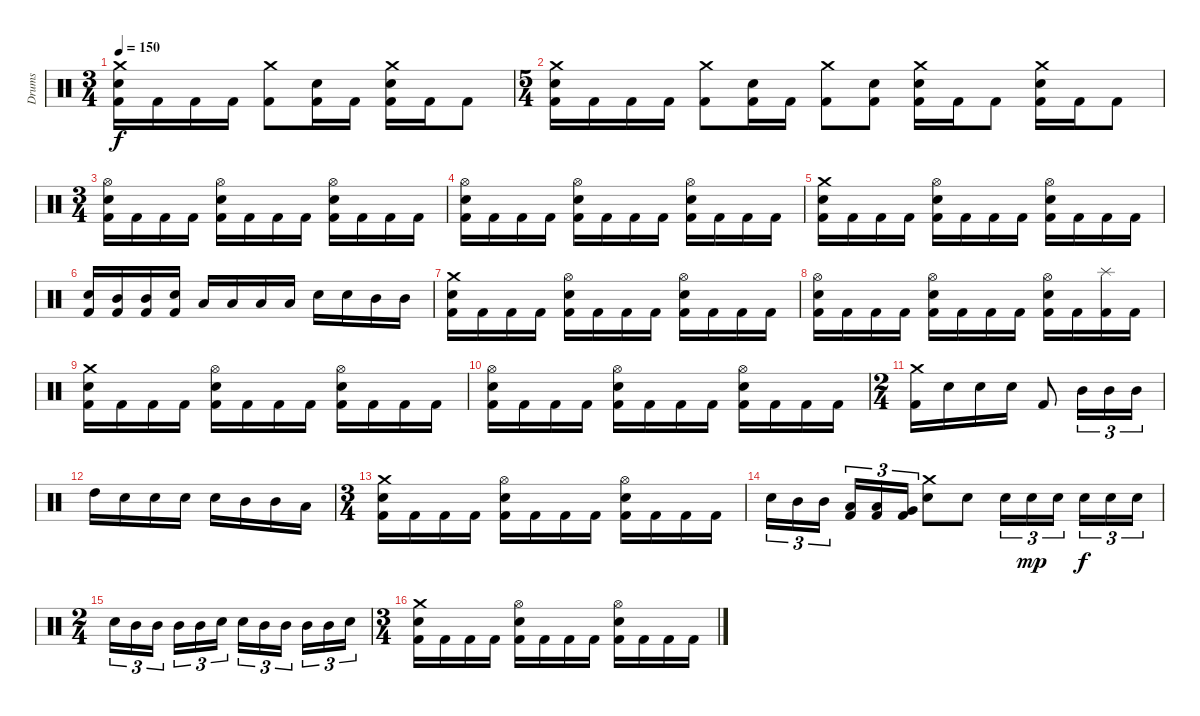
\track ("Drums" "Drums") {instrument percussion}
\staff {score}
\articulation defaults
\ts (3 4)
\tempo 150
\clef neutral
\ks c
("Crash medium (hit)" "Electric Snare (hit)" "Kick (hit) 2").16{dy f} "Kick (hit) 2".16 "Kick (hit) 2".16 "Kick (hit) 2".16 ("Crash medium (hit)" "Kick (hit) 2").8 ("Electric Snare (hit)" "Kick (hit) 2").16 "Kick (hit) 2".16 ("Crash medium (hit)" "Electric Snare (hit)" "Kick (hit) 2").16 "Kick (hit) 2".16 "Kick (hit) 2".8 |
\ts (5 4)
("Crash medium (hit)" "Electric Snare (hit)" "Kick (hit) 2").16 "Kick (hit) 2".16 "Kick (hit) 2".16 "Kick (hit) 2".16 ("Crash medium (hit)" "Kick (hit) 2").8 ("Electric Snare (hit)" "Kick (hit) 2").16 "Kick (hit) 2".16 ("Crash medium (hit)" "Kick (hit) 2").8 ("Electric Snare (hit)" "Kick (hit) 2").8 ("Crash medium (hit)" "Electric Snare (hit)" "Kick (hit) 2").16 "Kick (hit) 2".16 "Kick (hit) 2".8 ("Crash medium (hit)" "Electric Snare (hit)" "Kick (hit) 2").16 "Kick (hit) 2".16 "Kick (hit) 2".8 |
\ts (3 4)
("Hi-Hat (open)" "Electric Snare (hit)" "Kick (hit) 2").16 "Kick (hit) 2".16 "Kick (hit) 2".16 "Kick (hit) 2".16 ("Hi-Hat (open)" "Electric Snare (hit)" "Kick (hit) 2").16 "Kick (hit) 2".16 "Kick (hit) 2".16 "Kick (hit) 2".16 ("Hi-Hat (open)" "Electric Snare (hit)" "Kick (hit) 2").16 "Kick (hit) 2".16 "Kick (hit) 2".16 "Kick (hit) 2".16 |
("Hi-Hat (open)" "Electric Snare (hit)" "Kick (hit) 2").16 "Kick (hit) 2".16 "Kick (hit) 2".16 "Kick (hit) 2".16 ("Hi-Hat (open)" "Electric Snare (hit)" "Kick (hit) 2").16 "Kick (hit) 2".16 "Kick (hit) 2".16 "Kick (hit) 2".16 ("Hi-Hat (open)" "Electric Snare (hit)" "Kick (hit) 2").16 "Kick (hit) 2".16 "Kick (hit) 2".16 "Kick (hit) 2".16 |
("Crash medium (hit)" "Electric Snare (hit)" "Kick (hit) 2").16 "Kick (hit) 2".16 "Kick (hit) 2".16 "Kick (hit) 2".16 ("Hi-Hat (open)" "Electric Snare (hit)" "Kick (hit) 2").16 "Kick (hit) 2".16 "Kick (hit) 2".16 "Kick (hit) 2".16 ("Hi-Hat (open)" "Electric Snare (hit)" "Kick (hit) 2").16 "Kick (hit) 2".16 "Kick (hit) 2".16 "Kick (hit) 2".16 |
("Electric Snare (hit)" "Kick (hit) 2").16 ("Mid Tom (hit)" "Kick (hit) 2").16 ("Mid Tom (hit)" "Kick (hit) 2").16 ("Electric Snare (hit)" "Kick (hit) 2").16 "Low Tom (hit)".16 "Low Tom (hit)".16 "Low Tom (hit)".16 "Low Tom (hit)".16 "Electric Snare (hit)".16 "Electric Snare (hit)".16 "Mid Tom (hit)".16 "Mid Tom (hit)".16 |
("Crash medium (hit)" "Electric Snare (hit)" "Kick (hit) 2").16 "Kick (hit) 2".16 "Kick (hit) 2".16 "Kick (hit) 2".16 ("Hi-Hat (open)" "Electric Snare (hit)" "Kick (hit) 2").16 "Kick (hit) 2".16 "Kick (hit) 2".16 "Kick (hit) 2".16 ("Hi-Hat (open)" "Electric Snare (hit)" "Kick (hit) 2").16 "Kick (hit) 2".16 "Kick (hit) 2".16 "Kick (hit) 2".16 |
("Hi-Hat (open)" "Electric Snare (hit)" "Kick (hit) 2").16 "Kick (hit) 2".16 "Kick (hit) 2".16 "Kick (hit) 2".16 ("Hi-Hat (open)" "Electric Snare (hit)" "Kick (hit) 2").16 "Kick (hit) 2".16 "Kick (hit) 2".16 "Kick (hit) 2".16 ("Hi-Hat (open)" "Electric Snare (hit)" "Kick (hit) 2").16 "Kick (hit) 2".16 ("Splash (hit)" "Kick (hit) 2").16 "Kick (hit) 2".16 |
("Crash medium (hit)" "Electric Snare (hit)" "Kick (hit) 2").16 "Kick (hit) 2".16 "Kick (hit) 2".16 "Kick (hit) 2".16 ("Hi-Hat (open)" "Electric Snare (hit)" "Kick (hit) 2").16 "Kick (hit) 2".16 "Kick (hit) 2".16 "Kick (hit) 2".16 ("Hi-Hat (open)" "Electric Snare (hit)" "Kick (hit) 2").16 "Kick (hit) 2".16 "Kick (hit) 2".16 "Kick (hit) 2".16 |
("Hi-Hat (open)" "Electric Snare (hit)" "Kick (hit) 2").16 "Kick (hit) 2".16 "Kick (hit) 2".16 "Kick (hit) 2".16 ("Hi-Hat (open)" "Electric Snare (hit)" "Kick (hit) 2").16 "Kick (hit) 2".16 "Kick (hit) 2".16 "Kick (hit) 2".16 ("Hi-Hat (open)" "Electric Snare (hit)" "Kick (hit) 2").16 "Kick (hit) 2".16 "Kick (hit) 2".16 "Kick (hit) 2".16 |
\ts (2 4)
("Crash medium (hit)" "Kick (hit) 2").16 "Electric Snare (hit)".16 "Electric Snare (hit)".16 "Electric Snare (hit)".16 "Kick (hit) 2".8 "Mid Tom (hit)".16{tu (3 2)} "Mid Tom (hit)".16{tu (3 2)} "Mid Tom (hit)".16{tu (3 2)} |
"High Tom (hit)".16 "Electric Snare (hit)".16 "Electric Snare (hit)".16 "Electric Snare (hit)".16 "Electric Snare (hit)".16 "Mid Tom (hit)".16 "Mid Tom (hit)".16 "Low Tom (hit)".16 |
\ts (3 4)
("Crash medium (hit)" "Electric Snare (hit)" "Kick (hit) 2").16 "Kick (hit) 2".16 "Kick (hit) 2".16 "Kick (hit) 2".16 ("Hi-Hat (open)" "Electric Snare (hit)" "Kick (hit) 2").16 "Kick (hit) 2".16 "Kick (hit) 2".16 "Kick (hit) 2".16 ("Hi-Hat (open)" "Electric Snare (hit)" "Kick (hit) 2").16 "Kick (hit) 2".16 "Kick (hit) 2".16 "Kick (hit) 2".16 |
"Electric Snare (hit)".16{tu (3 2)} "Mid Tom (hit)".16{tu (3 2)} "Mid Tom (hit)".16{tu (3 2)} ("Low Tom (hit)" "Kick (hit) 2").16{tu (3 2)} ("Low Tom (hit)" "Kick (hit) 2").16{tu (3 2)} ("Very Low Tom (hit)" "Kick (hit) 2").16{tu (3 2)} ("Crash medium (hit)" "Electric Snare (hit)").8 "Electric Snare (hit)".8 "Electric Snare (hit)".16{tu (3 2)} "Electric Snare (hit)".16{tu (3 2) dy mp} "Electric Snare (hit)".16{tu (3 2)} "Electric Snare (hit)".16{tu (3 2) dy f} "Electric Snare (hit)".16{tu (3 2)} "Electric Snare (hit)".16{tu (3 2)} |
\ts (2 4)
"Electric Snare (hit)".16{tu (3 2)} "Mid Tom (hit)".16{tu (3 2)} "Mid Tom (hit)".16{tu (3 2)} "Mid Tom (hit)".16{tu (3 2)} "Mid Tom (hit)".16{tu (3 2)} "Electric Snare (hit)".16{tu (3 2)} "Electric Snare (hit)".16{tu (3 2)} "Mid Tom (hit)".16{tu (3 2)} "Mid Tom (hit)".16{tu (3 2)} "Mid Tom (hit)".16{tu (3 2)} "Mid Tom (hit)".16{tu (3 2)} "Electric Snare (hit)".16{tu (3 2)} |
\ts (3 4)
("Crash medium (hit)" "Electric Snare (hit)" "Kick (hit) 2").16 "Kick (hit) 2".16 "Kick (hit) 2".16 "Kick (hit) 2".16 ("Hi-Hat (open)" "Electric Snare (hit)" "Kick (hit) 2").16 "Kick (hit) 2".16 "Kick (hit) 2".16 "Kick (hit) 2".16 ("Hi-Hat (open)" "Electric Snare (hit)" "Kick (hit) 2").16 "Kick (hit) 2".16 "Kick (hit) 2".16 "Kick (hit) 2".16
